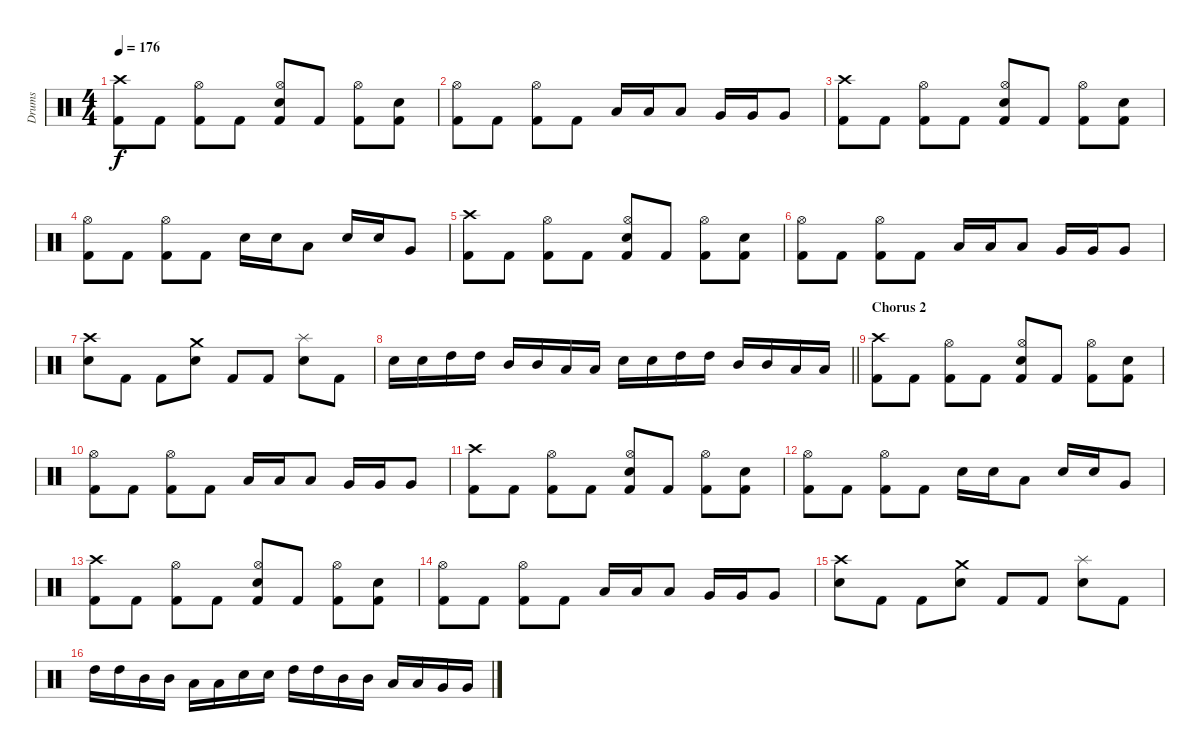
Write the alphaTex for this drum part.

\track ("Drums" "Drums") {instrument percussion}
\staff {score}
\articulation defaults
\ts (4 4)
\tempo 176
\clef neutral
\ks c
("Crash high (hit)" "Kick (hit) 2").8{dy f} "Kick (hit) 2".8 ("Hi-Hat (open)" "Kick (hit) 2").8 "Kick (hit) 2".8 ("Hi-Hat (open)" "Snare (hit) 2" "Kick (hit) 2").8 "Kick (hit) 2".8 ("Hi-Hat (open)" "Kick (hit) 2").8 ("Snare (hit) 2" "Kick (hit) 2").8 |
("Hi-Hat (open)" "Kick (hit) 2").8 "Kick (hit) 2".8 ("Hi-Hat (open)" "Kick (hit) 2").8 "Kick (hit) 2".8 "Low Tom (hit)".16 "Low Tom (hit)".16 "Low Tom (hit)".8 "Very Low Tom (hit)".16 "Very Low Tom (hit)".16 "Very Low Tom (hit)".8 |
("Crash high (hit)" "Kick (hit) 2").8 "Kick (hit) 2".8 ("Hi-Hat (open)" "Kick (hit) 2").8 "Kick (hit) 2".8 ("Hi-Hat (open)" "Snare (hit) 2" "Kick (hit) 2").8 "Kick (hit) 2".8 ("Hi-Hat (open)" "Kick (hit) 2").8 ("Snare (hit) 2" "Kick (hit) 2").8 |
("Hi-Hat (open)" "Kick (hit) 2").8 "Kick (hit) 2".8 ("Hi-Hat (open)" "Kick (hit) 2").8 "Kick (hit) 2".8 "Snare (hit) 2".16 "Snare (hit) 2".16 "Low Tom (hit)".8 "Snare (hit) 2".16 "Snare (hit) 2".16 "Very Low Tom (hit)".8 |
("Crash high (hit)" "Kick (hit) 2").8 "Kick (hit) 2".8 ("Hi-Hat (open)" "Kick (hit) 2").8 "Kick (hit) 2".8 ("Hi-Hat (open)" "Snare (hit) 2" "Kick (hit) 2").8 "Kick (hit) 2".8 ("Hi-Hat (open)" "Kick (hit) 2").8 ("Snare (hit) 2" "Kick (hit) 2").8 |
("Hi-Hat (open)" "Kick (hit) 2").8 "Kick (hit) 2".8 ("Hi-Hat (open)" "Kick (hit) 2").8 "Kick (hit) 2".8 "Low Tom (hit)".16 "Low Tom (hit)".16 "Low Tom (hit)".8 "Very Low Tom (hit)".16 "Very Low Tom (hit)".16 "Very Low Tom (hit)".8 |
("Crash high (hit)" "Snare (hit) 2").8 "Kick (hit) 2".8 "Kick (hit) 2".8 ("Crash medium (hit)" "Snare (hit) 2").8 "Kick (hit) 2".8 "Kick (hit) 2".8 ("Splash (hit)" "Snare (hit) 2").8 "Kick (hit) 2".8 |
\barLineRight lightlight "Snare (hit) 2".16 "Snare (hit) 2".16 "High Tom (hit)".16 "High Tom (hit)".16 "Mid Tom (hit)".16 "Mid Tom (hit)".16 "Low Tom (hit)".16 "Low Tom (hit)".16 "Snare (hit) 2".16 "Snare (hit) 2".16 "High Tom (hit)".16 "High Tom (hit)".16 "Mid Tom (hit)".16 "Mid Tom (hit)".16 "Low Tom (hit)".16 "Low Tom (hit)".16
|
\section ("" "Chorus 2")
("Crash high (hit)" "Kick (hit) 2").8 "Kick (hit) 2".8 ("Hi-Hat (open)" "Kick (hit) 2").8 "Kick (hit) 2".8 ("Hi-Hat (open)" "Snare (hit) 2" "Kick (hit) 2").8 "Kick (hit) 2".8 ("Hi-Hat (open)" "Kick (hit) 2").8 ("Snare (hit) 2" "Kick (hit) 2").8 |
("Hi-Hat (open)" "Kick (hit) 2").8 "Kick (hit) 2".8 ("Hi-Hat (open)" "Kick (hit) 2").8 "Kick (hit) 2".8 "Low Tom (hit)".16 "Low Tom (hit)".16 "Low Tom (hit)".8 "Very Low Tom (hit)".16 "Very Low Tom (hit)".16 "Very Low Tom (hit)".8 |
("Crash high (hit)" "Kick (hit) 2").8 "Kick (hit) 2".8 ("Hi-Hat (open)" "Kick (hit) 2").8 "Kick (hit) 2".8 ("Hi-Hat (open)" "Snare (hit) 2" "Kick (hit) 2").8 "Kick (hit) 2".8 ("Hi-Hat (open)" "Kick (hit) 2").8 ("Snare (hit) 2" "Kick (hit) 2").8 |
("Hi-Hat (open)" "Kick (hit) 2").8 "Kick (hit) 2".8 ("Hi-Hat (open)" "Kick (hit) 2").8 "Kick (hit) 2".8 "Snare (hit) 2".16 "Snare (hit) 2".16 "Low Tom (hit)".8 "Snare (hit) 2".16 "Snare (hit) 2".16 "Very Low Tom (hit)".8 |
("Crash high (hit)" "Kick (hit) 2").8 "Kick (hit) 2".8 ("Hi-Hat (open)" "Kick (hit) 2").8 "Kick (hit) 2".8 ("Hi-Hat (open)" "Snare (hit) 2" "Kick (hit) 2").8 "Kick (hit) 2".8 ("Hi-Hat (open)" "Kick (hit) 2").8 ("Snare (hit) 2" "Kick (hit) 2").8 |
("Hi-Hat (open)" "Kick (hit) 2").8 "Kick (hit) 2".8 ("Hi-Hat (open)" "Kick (hit) 2").8 "Kick (hit) 2".8 "Low Tom (hit)".16 "Low Tom (hit)".16 "Low Tom (hit)".8 "Very Low Tom (hit)".16 "Very Low Tom (hit)".16 "Very Low Tom (hit)".8 |
("Crash high (hit)" "Snare (hit) 2").8 "Kick (hit) 2".8 "Kick (hit) 2".8 ("Crash medium (hit)" "Snare (hit) 2").8 "Kick (hit) 2".8 "Kick (hit) 2".8 ("Splash (hit)" "Snare (hit) 2").8 "Kick (hit) 2".8 |
"High Tom (hit)".16 "High Tom (hit)".16 "Mid Tom (hit)".16 "Mid Tom (hit)".16 "Low Tom (hit)".16 "Low Tom (hit)".16 "Snare (hit) 2".16 "Snare (hit) 2".16 "High Tom (hit)".16 "High Tom (hit)".16 "Mid Tom (hit)".16 "Mid Tom (hit)".16 "Low Tom (hit)".16 "Low Tom (hit)".16 "Very Low Tom (hit)".16 "Very Low Tom (hit)".16
